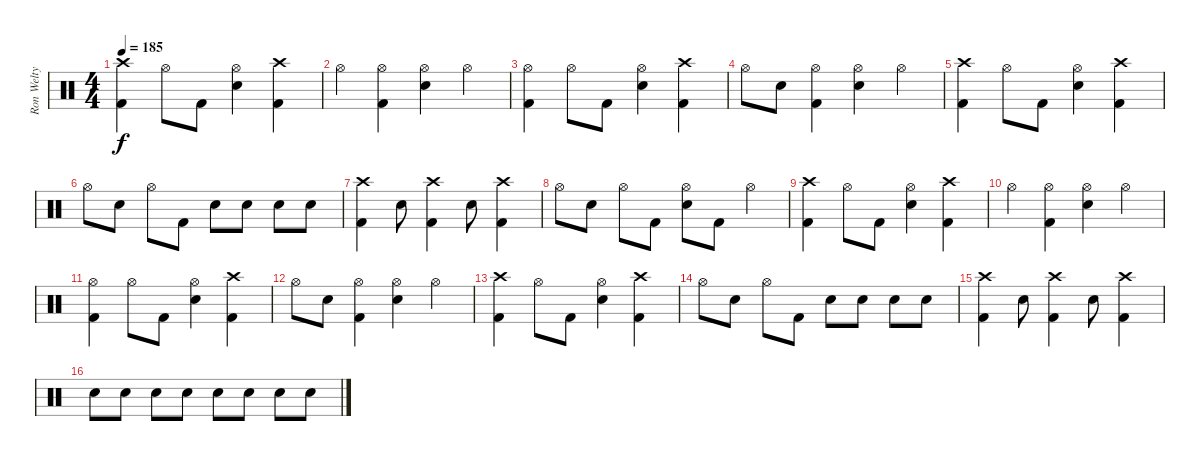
\track ("Ron Welty" "Ron Welty") {instrument percussion}
\staff {score}
\articulation defaults
\ts (4 4)
\tempo 185
\clef neutral
\ks c
("Crash high (hit)" "Kick (hit) 2").4{dy f} "Hi-Hat (open)".8 "Kick (hit) 2".8 ("Hi-Hat (open)" "Electric Snare (hit)").4 ("Crash high (hit)" "Kick (hit) 2").4 |
"Hi-Hat (open)".4 ("Hi-Hat (open)" "Kick (hit) 2").4 ("Hi-Hat (open)" "Electric Snare (hit)").4 "Hi-Hat (open)".4 |
("Hi-Hat (open)" "Kick (hit) 2").4 "Hi-Hat (open)".8 "Kick (hit) 2".8 ("Hi-Hat (open)" "Electric Snare (hit)").4 ("Crash high (hit)" "Kick (hit) 2").4 |
"Hi-Hat (open)".8 "Electric Snare (hit)".8 ("Hi-Hat (open)" "Kick (hit) 2").4 ("Hi-Hat (open)" "Electric Snare (hit)").4 "Hi-Hat (open)".4 |
("Crash high (hit)" "Kick (hit) 2").4 "Hi-Hat (open)".8 "Kick (hit) 2".8 ("Hi-Hat (open)" "Electric Snare (hit)").4 ("Crash high (hit)" "Kick (hit) 2").4 |
"Hi-Hat (open)".8 "Electric Snare (hit)".8 "Hi-Hat (open)".8 "Kick (hit) 2".8 "Electric Snare (hit)".8 "Electric Snare (hit)".8 "Electric Snare (hit)".8 "Electric Snare (hit)".8 |
("Crash high (hit)" "Kick (hit) 2").4 "Electric Snare (hit)".8 ("Crash high (hit)" "Kick (hit) 2").4 "Electric Snare (hit)".8 ("Crash high (hit)" "Kick (hit) 2").4 |
"Hi-Hat (open)".8 "Electric Snare (hit)".8 "Hi-Hat (open)".8 "Kick (hit) 2".8 ("Hi-Hat (open)" "Electric Snare (hit)").8 "Kick (hit) 2".8 "Hi-Hat (open)".4 |
("Crash high (hit)" "Kick (hit) 2").4 "Hi-Hat (open)".8 "Kick (hit) 2".8 ("Hi-Hat (open)" "Electric Snare (hit)").4 ("Crash high (hit)" "Kick (hit) 2").4 |
"Hi-Hat (open)".4 ("Hi-Hat (open)" "Kick (hit) 2").4 ("Hi-Hat (open)" "Electric Snare (hit)").4 "Hi-Hat (open)".4 |
("Hi-Hat (open)" "Kick (hit) 2").4 "Hi-Hat (open)".8 "Kick (hit) 2".8 ("Hi-Hat (open)" "Electric Snare (hit)").4 ("Crash high (hit)" "Kick (hit) 2").4 |
"Hi-Hat (open)".8 "Electric Snare (hit)".8 ("Hi-Hat (open)" "Kick (hit) 2").4 ("Hi-Hat (open)" "Electric Snare (hit)").4 "Hi-Hat (open)".4 |
("Crash high (hit)" "Kick (hit) 2").4 "Hi-Hat (open)".8 "Kick (hit) 2".8 ("Hi-Hat (open)" "Electric Snare (hit)").4 ("Crash high (hit)" "Kick (hit) 2").4 |
"Hi-Hat (open)".8 "Electric Snare (hit)".8 "Hi-Hat (open)".8 "Kick (hit) 2".8 "Electric Snare (hit)".8 "Electric Snare (hit)".8 "Electric Snare (hit)".8 "Electric Snare (hit)".8 |
("Crash high (hit)" "Kick (hit) 2").4 "Electric Snare (hit)".8 ("Crash high (hit)" "Kick (hit) 2").4 "Electric Snare (hit)".8 ("Crash high (hit)" "Kick (hit) 2").4 |
"Electric Snare (hit)".8 "Electric Snare (hit)".8 "Electric Snare (hit)".8 "Electric Snare (hit)".8 "Electric Snare (hit)".8 "Electric Snare (hit)".8 "Electric Snare (hit)".8 "Electric Snare (hit)".8
